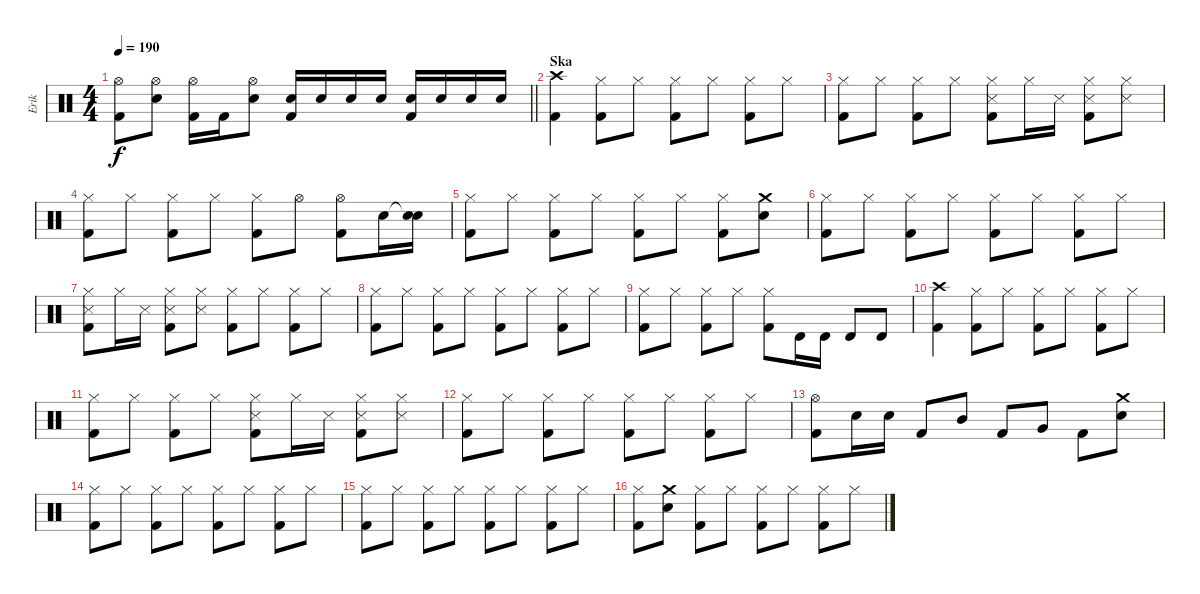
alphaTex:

\track ("Erik" "Erik") {instrument percussion}
\staff {score}
\articulation defaults
\ts (4 4)
\tempo 190
\clef neutral
\barLineRight lightlight
\ks c
("Hi-Hat (open)" "Kick (hit) 2").8{dy f} ("Hi-Hat (open)" "Snare (hit) 2").8 ("Hi-Hat (open)" "Kick (hit) 2").16 "Kick (hit) 2".16 ("Hi-Hat (open)" "Snare (hit) 2").8 ("Snare (hit) 2" "Kick (hit) 2").16 "Snare (hit) 2".16 "Snare (hit) 2".16 "Snare (hit) 2".16 ("Snare (hit) 2" "Kick (hit) 2").16 "Snare (hit) 2".16 "Snare (hit) 2".16 "Snare (hit) 2".16 |
\section ("" "Ska")
("Crash high (hit)" "Kick (hit) 2").4 ("Hi-Hat (closed)" "Kick (hit) 2").8 "Hi-Hat (closed)".8 ("Hi-Hat (closed)" "Kick (hit) 2").8 "Hi-Hat (closed)".8 ("Hi-Hat (closed)" "Kick (hit) 2").8 "Hi-Hat (closed)".8 |
("Hi-Hat (closed)" "Kick (hit) 2").8 "Hi-Hat (closed)".8 ("Hi-Hat (closed)" "Kick (hit) 2").8 "Hi-Hat (closed)".8 ("Hi-Hat (closed)" "Snare (side stick) 3" "Kick (hit) 2").8 "Hi-Hat (closed)".16 "Snare (side stick) 3".16 ("Hi-Hat (closed)" "Snare (side stick) 3" "Kick (hit) 2").8 ("Hi-Hat (closed)" "Snare (side stick) 3").8 |
("Hi-Hat (closed)" "Kick (hit) 2").8 "Hi-Hat (closed)".8 ("Hi-Hat (closed)" "Kick (hit) 2").8 "Hi-Hat (closed)".8 ("Hi-Hat (closed)" "Kick (hit) 2").8 "Hi-Hat (open)".8 ("Hi-Hat (open)" "Kick (hit) 2").8 "Snare (hit) 2".16 ("Snare (hit)"{t} "Snare (hit) 2").16 |
("Hi-Hat (closed)" "Kick (hit) 2").8 "Hi-Hat (closed)".8 ("Hi-Hat (closed)" "Kick (hit) 2").8 "Hi-Hat (closed)".8 ("Hi-Hat (closed)" "Kick (hit) 2").8 "Hi-Hat (closed)".8 ("Hi-Hat (closed)" "Kick (hit) 2").8 ("Crash medium (hit)" "Snare (hit) 2").8 |
("Hi-Hat (closed)" "Kick (hit) 2").8 "Hi-Hat (closed)".8 ("Hi-Hat (closed)" "Kick (hit) 2").8 "Hi-Hat (closed)".8 ("Hi-Hat (closed)" "Kick (hit) 2").8 "Hi-Hat (closed)".8 ("Hi-Hat (closed)" "Kick (hit) 2").8 "Hi-Hat (closed)".8 |
("Hi-Hat (closed)" "Snare (side stick) 3" "Kick (hit) 2").8 "Hi-Hat (closed)".16 "Snare (side stick) 3".16 ("Hi-Hat (closed)" "Snare (side stick) 3" "Kick (hit) 2").8 ("Hi-Hat (closed)" "Snare (side stick) 3").8 ("Hi-Hat (closed)" "Kick (hit) 2").8 "Hi-Hat (closed)".8 ("Hi-Hat (closed)" "Kick (hit) 2").8 "Hi-Hat (closed)".8 |
("Hi-Hat (closed)" "Kick (hit) 2").8 "Hi-Hat (closed)".8 ("Hi-Hat (closed)" "Kick (hit) 2").8 "Hi-Hat (closed)".8 ("Hi-Hat (closed)" "Kick (hit) 2").8 "Hi-Hat (closed)".8 ("Hi-Hat (closed)" "Kick (hit) 2").8 "Hi-Hat (closed)".8 |
("Hi-Hat (closed)" "Kick (hit) 2").8 "Hi-Hat (closed)".8 ("Hi-Hat (closed)" "Kick (hit) 2").8 "Hi-Hat (closed)".8 ("Hi-Hat (closed)" "Kick (hit) 2").8 "Timbale high (hit)".16 "Timbale high (hit)".16 "Timbale high (hit)".8 "Timbale high (hit)".8 |
("Crash high (hit)" "Kick (hit) 2").4 ("Hi-Hat (closed)" "Kick (hit) 2").8 "Hi-Hat (closed)".8 ("Hi-Hat (closed)" "Kick (hit) 2").8 "Hi-Hat (closed)".8 ("Hi-Hat (closed)" "Kick (hit) 2").8 "Hi-Hat (closed)".8 |
("Hi-Hat (closed)" "Kick (hit) 2").8 "Hi-Hat (closed)".8 ("Hi-Hat (closed)" "Kick (hit) 2").8 "Hi-Hat (closed)".8 ("Hi-Hat (closed)" "Snare (side stick) 3" "Kick (hit) 2").8 "Hi-Hat (closed)".16 "Snare (side stick) 3".16 ("Hi-Hat (closed)" "Snare (side stick) 3" "Kick (hit) 2").8 ("Hi-Hat (closed)" "Snare (side stick) 3").8 |
("Hi-Hat (closed)" "Kick (hit) 2").8 "Hi-Hat (closed)".8 ("Hi-Hat (closed)" "Kick (hit) 2").8 "Hi-Hat (closed)".8 ("Hi-Hat (closed)" "Kick (hit) 2").8 "Hi-Hat (closed)".8 ("Hi-Hat (closed)" "Kick (hit) 2").8 "Hi-Hat (closed)".8 |
("Hi-Hat (open)" "Kick (hit) 2").8 "Snare (hit) 2".16 "Snare (hit) 2".16 "Kick (hit) 2".8 "Mid Tom (hit)".8 "Kick (hit) 2".8 "Very Low Tom (hit)".8 "Kick (hit) 2".8 ("Crash medium (hit)" "Snare (hit) 2").8 |
("Hi-Hat (closed)" "Kick (hit) 2").8 "Hi-Hat (closed)".8 ("Hi-Hat (closed)" "Kick (hit) 2").8 "Hi-Hat (closed)".8 ("Hi-Hat (closed)" "Kick (hit) 2").8 "Hi-Hat (closed)".8 ("Hi-Hat (closed)" "Kick (hit) 2").8 "Hi-Hat (closed)".8 |
("Hi-Hat (closed)" "Kick (hit) 2").8 "Hi-Hat (closed)".8 ("Hi-Hat (closed)" "Kick (hit) 2").8 "Hi-Hat (closed)".8 ("Hi-Hat (closed)" "Kick (hit) 2").8 "Hi-Hat (closed)".8 ("Hi-Hat (closed)" "Kick (hit) 2").8 "Hi-Hat (closed)".8 |
("Hi-Hat (closed)" "Kick (hit) 2").8 ("Crash medium (hit)" "Snare (hit) 2").8 ("Hi-Hat (closed)" "Kick (hit) 2").8 "Hi-Hat (closed)".8 ("Hi-Hat (closed)" "Kick (hit) 2").8 "Hi-Hat (closed)".8 ("Hi-Hat (closed)" "Kick (hit) 2").8 "Hi-Hat (closed)".8
